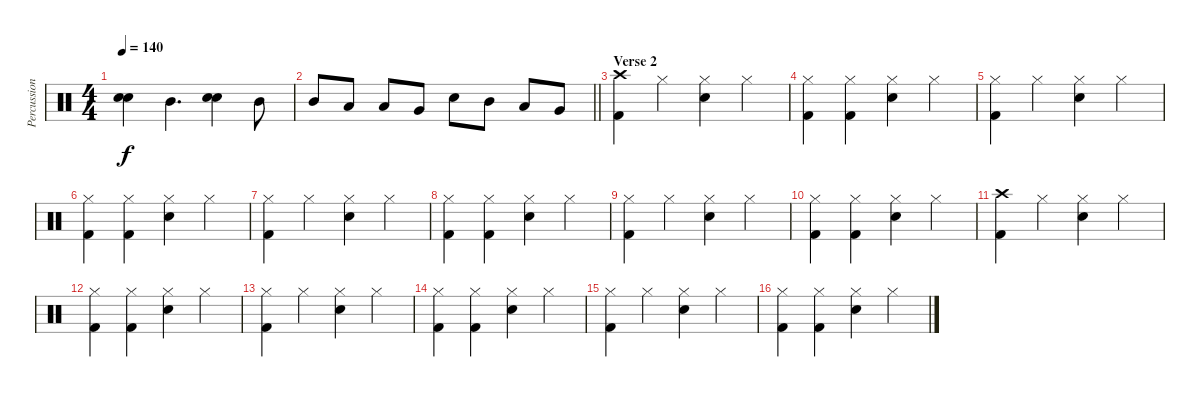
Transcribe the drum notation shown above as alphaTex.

\track ("Percussion" "Percussion") {instrument percussion}
\staff {score}
\articulation defaults
\ts (4 4)
\tempo 140
\clef neutral
\ks c
("Snare (hit) 2" "Snare (hit) 2").4{dy f} "Mid Tom (hit)".4{d} ("Snare (hit) 2" "Snare (hit) 2").4 "Mid Tom (hit)".8 |
\barLineRight lightlight "Mid Tom (hit)".8 "Low Tom (hit)".8 "Low Tom (hit)".8 "Very Low Tom (hit)".8 "Snare (hit) 2".8 "Mid Tom (hit)".8 "Low Tom (hit)".8 "Very Low Tom (hit)".8
|
\section ("" "Verse 2")
("Kick (hit) 2" "Crash high (hit)").4 "Hi-Hat (closed)".4 ("Snare (hit) 2" "Hi-Hat (closed)").4 "Hi-Hat (closed)".4 |
("Kick (hit) 2" "Hi-Hat (closed)").4 ("Kick (hit) 2" "Hi-Hat (closed)").4 ("Snare (hit) 2" "Hi-Hat (closed)").4 "Hi-Hat (closed)".4 |
("Kick (hit) 2" "Hi-Hat (closed)").4 "Hi-Hat (closed)".4 ("Snare (hit) 2" "Hi-Hat (closed)").4 "Hi-Hat (closed)".4 |
("Kick (hit) 2" "Hi-Hat (closed)").4 ("Kick (hit) 2" "Hi-Hat (closed)").4 ("Snare (hit) 2" "Hi-Hat (closed)").4 "Hi-Hat (closed)".4 |
("Kick (hit) 2" "Hi-Hat (closed)").4 "Hi-Hat (closed)".4 ("Snare (hit) 2" "Hi-Hat (closed)").4 "Hi-Hat (closed)".4 |
("Kick (hit) 2" "Hi-Hat (closed)").4 ("Kick (hit) 2" "Hi-Hat (closed)").4 ("Snare (hit) 2" "Hi-Hat (closed)").4 "Hi-Hat (closed)".4 |
("Kick (hit) 2" "Hi-Hat (closed)").4 "Hi-Hat (closed)".4 ("Snare (hit) 2" "Hi-Hat (closed)").4 "Hi-Hat (closed)".4 |
("Kick (hit) 2" "Hi-Hat (closed)").4 ("Kick (hit) 2" "Hi-Hat (closed)").4 ("Snare (hit) 2" "Hi-Hat (closed)").4 "Hi-Hat (closed)".4 |
("Kick (hit) 2" "Crash high (hit)").4 "Hi-Hat (closed)".4 ("Snare (hit) 2" "Hi-Hat (closed)").4 "Hi-Hat (closed)".4 |
("Kick (hit) 2" "Hi-Hat (closed)").4 ("Kick (hit) 2" "Hi-Hat (closed)").4 ("Snare (hit) 2" "Hi-Hat (closed)").4 "Hi-Hat (closed)".4 |
("Kick (hit) 2" "Hi-Hat (closed)").4 "Hi-Hat (closed)".4 ("Snare (hit) 2" "Hi-Hat (closed)").4 "Hi-Hat (closed)".4 |
("Kick (hit) 2" "Hi-Hat (closed)").4 ("Kick (hit) 2" "Hi-Hat (closed)").4 ("Snare (hit) 2" "Hi-Hat (closed)").4 "Hi-Hat (closed)".4 |
("Kick (hit) 2" "Hi-Hat (closed)").4 "Hi-Hat (closed)".4 ("Snare (hit) 2" "Hi-Hat (closed)").4 "Hi-Hat (closed)".4 |
("Kick (hit) 2" "Hi-Hat (closed)").4 ("Kick (hit) 2" "Hi-Hat (closed)").4 ("Snare (hit) 2" "Hi-Hat (closed)").4 "Hi-Hat (closed)".4
